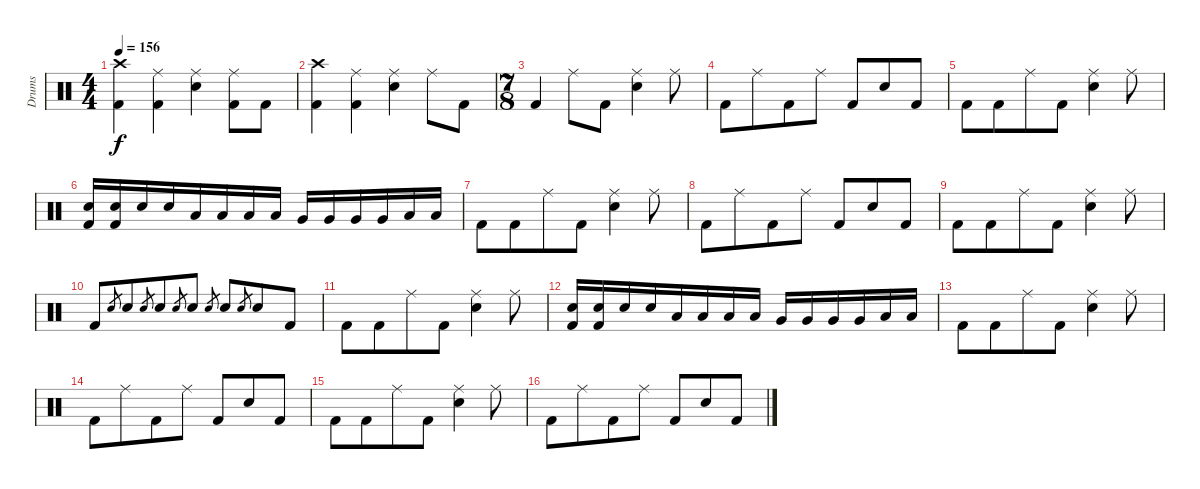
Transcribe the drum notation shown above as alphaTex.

\track ("Drums" "Drums") {instrument percussion}
\staff {score}
\articulation defaults
\ts (4 4)
\tempo 156
\clef neutral
\ks c
("Crash high (hit)" "Kick (hit) 2").4{dy f} ("Ride (middle)" "Kick (hit) 2").4 ("Ride (middle)" "Electric Snare (hit)").4 ("Ride (middle)" "Kick (hit) 2").8 "Kick (hit) 2".8 |
("Crash high (hit)" "Kick (hit) 2").4 ("Ride (middle)" "Kick (hit) 2").4 ("Ride (middle)" "Electric Snare (hit)").4 "Ride (middle)".8 "Kick (hit) 2".8 |
\ts (7 8)
"Kick (hit) 2".4 "Ride (middle)".8 "Kick (hit) 2".8 ("Ride (middle)" "Electric Snare (hit)").4 "Ride (middle)".8 |
"Kick (hit) 2".8 "Ride (middle)".8 "Kick (hit) 2".8 "Ride (middle)".8 "Kick (hit) 2".8 "Electric Snare (hit)".8 "Kick (hit) 2".8 |
"Kick (hit) 2".8 "Kick (hit) 2".8 "Ride (middle)".8 "Kick (hit) 2".8 ("Ride (middle)" "Electric Snare (hit)").4 "Ride (middle)".8 |
("Electric Snare (hit)" "Kick (hit) 2").16 ("Electric Snare (hit)" "Kick (hit) 2").16 "Electric Snare (hit)".16 "Electric Snare (hit)".16 "Low Tom (hit)".16 "Low Tom (hit)".16 "Low Tom (hit)".16 "Low Tom (hit)".16 "Very Low Tom (hit)".16 "Very Low Tom (hit)".16 "Very Low Tom (hit)".16 "Very Low Tom (hit)".16 "Low Floor Tom (hit)".16 "Low Floor Tom (hit)".16 |
"Kick (hit) 2".8 "Kick (hit) 2".8 "Ride (middle)".8 "Kick (hit) 2".8 ("Ride (middle)" "Electric Snare (hit)").4 "Ride (middle)".8 |
"Kick (hit) 2".8 "Ride (middle)".8 "Kick (hit) 2".8 "Ride (middle)".8 "Kick (hit) 2".8 "Electric Snare (hit)".8 "Kick (hit) 2".8 |
"Kick (hit) 2".8 "Kick (hit) 2".8 "Ride (middle)".8 "Kick (hit) 2".8 ("Ride (middle)" "Electric Snare (hit)").4 "Ride (middle)".8 |
"Kick (hit) 2".8 "Electric Snare (hit)".8{gr} "Electric Snare (hit)".8 "Electric Snare (hit)".8{gr} "Electric Snare (hit)".8 "Electric Snare (hit)".8{gr} "Electric Snare (hit)".8 "Electric Snare (hit)".8{gr} "Electric Snare (hit)".8 "Electric Snare (hit)".8{gr} "Electric Snare (hit)".8 "Kick (hit) 2".8 |
"Kick (hit) 2".8 "Kick (hit) 2".8 "Ride (middle)".8 "Kick (hit) 2".8 ("Ride (middle)" "Electric Snare (hit)").4 "Ride (middle)".8 |
("Electric Snare (hit)" "Kick (hit) 2").16 ("Electric Snare (hit)" "Kick (hit) 2").16 "Electric Snare (hit)".16 "Electric Snare (hit)".16 "Low Tom (hit)".16 "Low Tom (hit)".16 "Low Tom (hit)".16 "Low Tom (hit)".16 "Very Low Tom (hit)".16 "Very Low Tom (hit)".16 "Very Low Tom (hit)".16 "Very Low Tom (hit)".16 "Low Floor Tom (hit)".16 "Low Floor Tom (hit)".16 |
"Kick (hit) 2".8 "Kick (hit) 2".8 "Ride (middle)".8 "Kick (hit) 2".8 ("Ride (middle)" "Electric Snare (hit)").4 "Ride (middle)".8 |
"Kick (hit) 2".8 "Ride (middle)".8 "Kick (hit) 2".8 "Ride (middle)".8 "Kick (hit) 2".8 "Electric Snare (hit)".8 "Kick (hit) 2".8 |
"Kick (hit) 2".8 "Kick (hit) 2".8 "Ride (middle)".8 "Kick (hit) 2".8 ("Ride (middle)" "Electric Snare (hit)").4 "Ride (middle)".8 |
"Kick (hit) 2".8 "Ride (middle)".8 "Kick (hit) 2".8 "Ride (middle)".8 "Kick (hit) 2".8 "Electric Snare (hit)".8 "Kick (hit) 2".8
